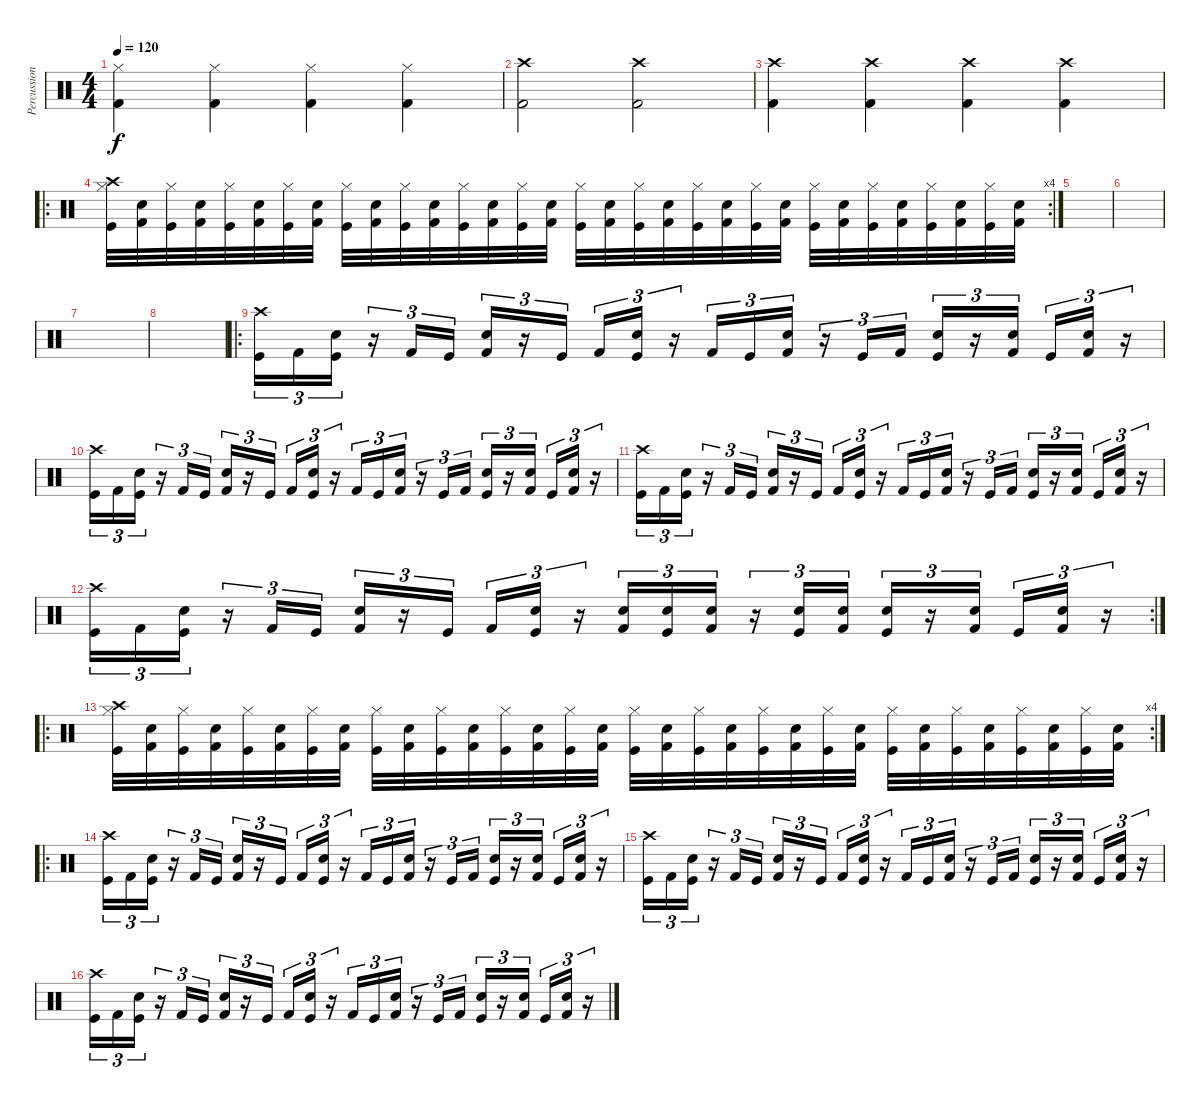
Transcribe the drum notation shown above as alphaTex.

\track ("Percussion" "Percussion") {instrument percussion}
\staff {score}
\articulation defaults
\ts (4 4)
\tempo 120
\clef neutral
\ks c
("Kick (hit) 2" "Hi-Hat (closed)").4{dy f} ("Kick (hit) 2" "Hi-Hat (closed)").4 ("Kick (hit) 2" "Hi-Hat (closed)").4 ("Kick (hit) 2" "Hi-Hat (closed)").4 |
("Crash high (hit)" "Kick (hit) 2").2 ("Crash high (hit)" "Kick (hit) 2").2 |
("Crash high (hit)" "Kick (hit) 2").4 ("Crash high (hit)" "Kick (hit) 2").4 ("Crash high (hit)" "Kick (hit) 2").4 ("Crash high (hit)" "Kick (hit) 2").4 |
\ro
\rc 4
("Crash high (hit)" "Hi-Hat (closed)" "Kick (hit)").32 ("Snare (hit) 2" "Kick (hit) 2").32 ("Hi-Hat (closed)" "Kick (hit)").32 ("Snare (hit) 2" "Kick (hit) 2").32 ("Hi-Hat (closed)" "Kick (hit)").32 ("Snare (hit) 2" "Kick (hit) 2").32 ("Hi-Hat (closed)" "Kick (hit)").32 ("Snare (hit) 2" "Kick (hit) 2").32 ("Hi-Hat (closed)" "Kick (hit)").32 ("Snare (hit) 2" "Kick (hit) 2").32 ("Hi-Hat (closed)" "Kick (hit)").32 ("Snare (hit) 2" "Kick (hit) 2").32 ("Hi-Hat (closed)" "Kick (hit)").32 ("Snare (hit) 2" "Kick (hit) 2").32 ("Hi-Hat (closed)" "Kick (hit)").32 ("Snare (hit) 2" "Kick (hit) 2").32 ("Hi-Hat (closed)" "Kick (hit)").32 ("Snare (hit) 2" "Kick (hit) 2").32 ("Hi-Hat (closed)" "Kick (hit)").32 ("Snare (hit) 2" "Kick (hit) 2").32 ("Hi-Hat (closed)" "Kick (hit)").32 ("Snare (hit) 2" "Kick (hit) 2").32 ("Hi-Hat (closed)" "Kick (hit)").32 ("Snare (hit) 2" "Kick (hit) 2").32 ("Hi-Hat (closed)" "Kick (hit)").32 ("Snare (hit) 2" "Kick (hit) 2").32 ("Hi-Hat (closed)" "Kick (hit)").32 ("Snare (hit) 2" "Kick (hit) 2").32 ("Hi-Hat (closed)" "Kick (hit)").32 ("Snare (hit) 2" "Kick (hit) 2").32 ("Hi-Hat (closed)" "Kick (hit)").32 ("Snare (hit) 2" "Kick (hit) 2").32 |
|
|
|
|
\ro
("Crash high (hit)" "Kick (hit)").16{tu (3 2)} "Kick (hit) 2".16{tu (3 2)} ("Snare (hit) 2" "Kick (hit)").16{tu (3 2)} r.16{tu (3 2)} "Kick (hit) 2".16{tu (3 2)} "Kick (hit)".16{tu (3 2)} ("Snare (hit) 2" "Kick (hit) 2").16{tu (3 2)} r.16{tu (3 2)} "Kick (hit)".16{tu (3 2)} "Kick (hit) 2".16{tu (3 2)} ("Snare (hit) 2" "Kick (hit)").16{tu (3 2)} r.16{tu (3 2)} "Kick (hit) 2".16{tu (3 2)} "Kick (hit)".16{tu (3 2)} ("Snare (hit) 2" "Kick (hit) 2").16{tu (3 2)} r.16{tu (3 2)} "Kick (hit)".16{tu (3 2)} "Kick (hit) 2".16{tu (3 2)} ("Snare (hit) 2" "Kick (hit)").16{tu (3 2)} r.16{tu (3 2)} ("Snare (hit) 2" "Kick (hit) 2").16{tu (3 2)} "Kick (hit)".16{tu (3 2)} ("Snare (hit) 2" "Kick (hit) 2").16{tu (3 2)} r.16{tu (3 2)} |
("Crash high (hit)" "Kick (hit)").16{tu (3 2)} "Kick (hit) 2".16{tu (3 2)} ("Snare (hit) 2" "Kick (hit)").16{tu (3 2)} r.16{tu (3 2)} "Kick (hit) 2".16{tu (3 2)} "Kick (hit)".16{tu (3 2)} ("Snare (hit) 2" "Kick (hit) 2").16{tu (3 2)} r.16{tu (3 2)} "Kick (hit)".16{tu (3 2)} "Kick (hit) 2".16{tu (3 2)} ("Snare (hit) 2" "Kick (hit)").16{tu (3 2)} r.16{tu (3 2)} "Kick (hit) 2".16{tu (3 2)} "Kick (hit)".16{tu (3 2)} ("Snare (hit) 2" "Kick (hit) 2").16{tu (3 2)} r.16{tu (3 2)} "Kick (hit)".16{tu (3 2)} "Kick (hit) 2".16{tu (3 2)} ("Snare (hit) 2" "Kick (hit)").16{tu (3 2)} r.16{tu (3 2)} ("Snare (hit) 2" "Kick (hit) 2").16{tu (3 2)} "Kick (hit)".16{tu (3 2)} ("Snare (hit) 2" "Kick (hit) 2").16{tu (3 2)} r.16{tu (3 2)} |
("Crash high (hit)" "Kick (hit)").16{tu (3 2)} "Kick (hit) 2".16{tu (3 2)} ("Snare (hit) 2" "Kick (hit)").16{tu (3 2)} r.16{tu (3 2)} "Kick (hit) 2".16{tu (3 2)} "Kick (hit)".16{tu (3 2)} ("Snare (hit) 2" "Kick (hit) 2").16{tu (3 2)} r.16{tu (3 2)} "Kick (hit)".16{tu (3 2)} "Kick (hit) 2".16{tu (3 2)} ("Snare (hit) 2" "Kick (hit)").16{tu (3 2)} r.16{tu (3 2)} "Kick (hit) 2".16{tu (3 2)} "Kick (hit)".16{tu (3 2)} ("Snare (hit) 2" "Kick (hit) 2").16{tu (3 2)} r.16{tu (3 2)} "Kick (hit)".16{tu (3 2)} "Kick (hit) 2".16{tu (3 2)} ("Snare (hit) 2" "Kick (hit)").16{tu (3 2)} r.16{tu (3 2)} ("Snare (hit) 2" "Kick (hit) 2").16{tu (3 2)} "Kick (hit)".16{tu (3 2)} ("Snare (hit) 2" "Kick (hit) 2").16{tu (3 2)} r.16{tu (3 2)} |
\rc 2
("Crash high (hit)" "Kick (hit)").16{tu (3 2)} "Kick (hit) 2".16{tu (3 2)} ("Snare (hit) 2" "Kick (hit)").16{tu (3 2)} r.16{tu (3 2)} "Kick (hit) 2".16{tu (3 2)} "Kick (hit)".16{tu (3 2)} ("Snare (hit) 2" "Kick (hit) 2").16{tu (3 2)} r.16{tu (3 2)} "Kick (hit)".16{tu (3 2)} "Kick (hit) 2".16{tu (3 2)} ("Snare (hit) 2" "Kick (hit)").16{tu (3 2)} r.16{tu (3 2)} ("Snare (hit) 2" "Kick (hit) 2").16{tu (3 2)} ("Snare (hit) 2" "Kick (hit)").16{tu (3 2)} ("Snare (hit) 2" "Kick (hit) 2").16{tu (3 2)} r.16{tu (3 2)} ("Snare (hit) 2" "Kick (hit)").16{tu (3 2)} ("Snare (hit) 2" "Kick (hit) 2").16{tu (3 2)} ("Snare (hit) 2" "Kick (hit)").16{tu (3 2)} r.16{tu (3 2)} ("Snare (hit) 2" "Kick (hit) 2").16{tu (3 2)} "Kick (hit)".16{tu (3 2)} ("Snare (hit) 2" "Kick (hit) 2").16{tu (3 2)} r.16{tu (3 2)} |
\ro
\rc 4
("Crash high (hit)" "Hi-Hat (closed)" "Kick (hit)").32 ("Snare (hit) 2" "Kick (hit) 2").32 ("Hi-Hat (closed)" "Kick (hit)").32 ("Snare (hit) 2" "Kick (hit) 2").32 ("Hi-Hat (closed)" "Kick (hit)").32 ("Snare (hit) 2" "Kick (hit) 2").32 ("Hi-Hat (closed)" "Kick (hit)").32 ("Snare (hit) 2" "Kick (hit) 2").32 ("Hi-Hat (closed)" "Kick (hit)").32 ("Snare (hit) 2" "Kick (hit) 2").32 ("Hi-Hat (closed)" "Kick (hit)").32 ("Snare (hit) 2" "Kick (hit) 2").32 ("Hi-Hat (closed)" "Kick (hit)").32 ("Snare (hit) 2" "Kick (hit) 2").32 ("Hi-Hat (closed)" "Kick (hit)").32 ("Snare (hit) 2" "Kick (hit) 2").32 ("Hi-Hat (closed)" "Kick (hit)").32 ("Snare (hit) 2" "Kick (hit) 2").32 ("Hi-Hat (closed)" "Kick (hit)").32 ("Snare (hit) 2" "Kick (hit) 2").32 ("Hi-Hat (closed)" "Kick (hit)").32 ("Snare (hit) 2" "Kick (hit) 2").32 ("Hi-Hat (closed)" "Kick (hit)").32 ("Snare (hit) 2" "Kick (hit) 2").32 ("Hi-Hat (closed)" "Kick (hit)").32 ("Snare (hit) 2" "Kick (hit) 2").32 ("Hi-Hat (closed)" "Kick (hit)").32 ("Snare (hit) 2" "Kick (hit) 2").32 ("Hi-Hat (closed)" "Kick (hit)").32 ("Snare (hit) 2" "Kick (hit) 2").32 ("Hi-Hat (closed)" "Kick (hit)").32 ("Snare (hit) 2" "Kick (hit) 2").32 |
\ro
("Crash high (hit)" "Kick (hit)").16{tu (3 2)} "Kick (hit) 2".16{tu (3 2)} ("Snare (hit) 2" "Kick (hit)").16{tu (3 2)} r.16{tu (3 2)} "Kick (hit) 2".16{tu (3 2)} "Kick (hit)".16{tu (3 2)} ("Snare (hit) 2" "Kick (hit) 2").16{tu (3 2)} r.16{tu (3 2)} "Kick (hit)".16{tu (3 2)} "Kick (hit) 2".16{tu (3 2)} ("Snare (hit) 2" "Kick (hit)").16{tu (3 2)} r.16{tu (3 2)} "Kick (hit) 2".16{tu (3 2)} "Kick (hit)".16{tu (3 2)} ("Snare (hit) 2" "Kick (hit) 2").16{tu (3 2)} r.16{tu (3 2)} "Kick (hit)".16{tu (3 2)} "Kick (hit) 2".16{tu (3 2)} ("Snare (hit) 2" "Kick (hit)").16{tu (3 2)} r.16{tu (3 2)} ("Snare (hit) 2" "Kick (hit) 2").16{tu (3 2)} "Kick (hit)".16{tu (3 2)} ("Snare (hit) 2" "Kick (hit) 2").16{tu (3 2)} r.16{tu (3 2)} |
("Crash high (hit)" "Kick (hit)").16{tu (3 2)} "Kick (hit) 2".16{tu (3 2)} ("Snare (hit) 2" "Kick (hit)").16{tu (3 2)} r.16{tu (3 2)} "Kick (hit) 2".16{tu (3 2)} "Kick (hit)".16{tu (3 2)} ("Snare (hit) 2" "Kick (hit) 2").16{tu (3 2)} r.16{tu (3 2)} "Kick (hit)".16{tu (3 2)} "Kick (hit) 2".16{tu (3 2)} ("Snare (hit) 2" "Kick (hit)").16{tu (3 2)} r.16{tu (3 2)} "Kick (hit) 2".16{tu (3 2)} "Kick (hit)".16{tu (3 2)} ("Snare (hit) 2" "Kick (hit) 2").16{tu (3 2)} r.16{tu (3 2)} "Kick (hit)".16{tu (3 2)} "Kick (hit) 2".16{tu (3 2)} ("Snare (hit) 2" "Kick (hit)").16{tu (3 2)} r.16{tu (3 2)} ("Snare (hit) 2" "Kick (hit) 2").16{tu (3 2)} "Kick (hit)".16{tu (3 2)} ("Snare (hit) 2" "Kick (hit) 2").16{tu (3 2)} r.16{tu (3 2)} |
("Crash high (hit)" "Kick (hit)").16{tu (3 2)} "Kick (hit) 2".16{tu (3 2)} ("Snare (hit) 2" "Kick (hit)").16{tu (3 2)} r.16{tu (3 2)} "Kick (hit) 2".16{tu (3 2)} "Kick (hit)".16{tu (3 2)} ("Snare (hit) 2" "Kick (hit) 2").16{tu (3 2)} r.16{tu (3 2)} "Kick (hit)".16{tu (3 2)} "Kick (hit) 2".16{tu (3 2)} ("Snare (hit) 2" "Kick (hit)").16{tu (3 2)} r.16{tu (3 2)} "Kick (hit) 2".16{tu (3 2)} "Kick (hit)".16{tu (3 2)} ("Snare (hit) 2" "Kick (hit) 2").16{tu (3 2)} r.16{tu (3 2)} "Kick (hit)".16{tu (3 2)} "Kick (hit) 2".16{tu (3 2)} ("Snare (hit) 2" "Kick (hit)").16{tu (3 2)} r.16{tu (3 2)} ("Snare (hit) 2" "Kick (hit) 2").16{tu (3 2)} "Kick (hit)".16{tu (3 2)} ("Snare (hit) 2" "Kick (hit) 2").16{tu (3 2)} r.16{tu (3 2)}
